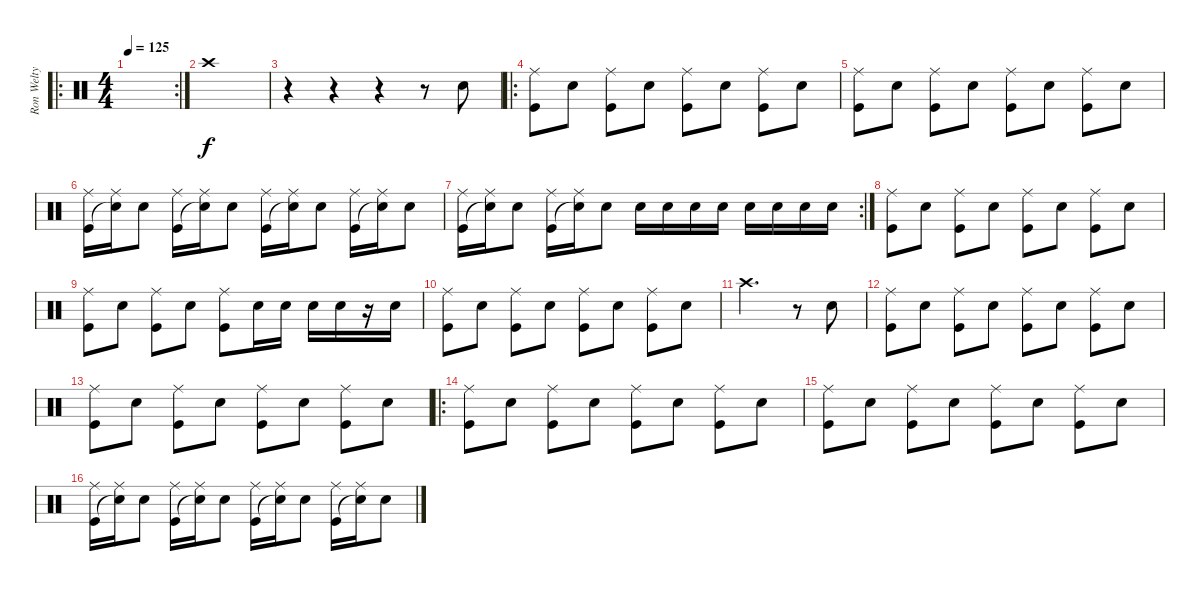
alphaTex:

\track ("Ron Welty" "Ron Welty") {instrument percussion}
\staff {score}
\articulation defaults
\ro
\rc 2
\ts (4 4)
\tempo 125
\clef neutral
\ks c
|
"Crash high (hit)".1 |
r.4 r.4 r.4 r.8 "Snare (hit) 2".8 |
\ro
("Ride (middle)" "Kick (hit)").8 "Snare (hit) 2".8 ("Ride (middle)" "Kick (hit)").8 "Snare (hit) 2".8 ("Ride (middle)" "Kick (hit)").8 "Snare (hit) 2".8 ("Ride (middle)" "Kick (hit)").8 "Snare (hit) 2".8 |
("Ride (middle)" "Kick (hit)").8 "Snare (hit) 2".8 ("Ride (middle)" "Kick (hit)").8 "Snare (hit) 2".8 ("Ride (middle)" "Kick (hit)").8 "Snare (hit) 2".8 ("Ride (middle)" "Kick (hit)").8 "Snare (hit) 2".8 |
("Ride (middle)" "Kick (hit)").16 ("Ride (middle)" "Snare (hit)"{t}).16 "Snare (hit) 2".8 ("Ride (middle)" "Kick (hit)").16 ("Ride (middle)" "Snare (hit)"{t}).16 "Snare (hit) 2".8 ("Ride (middle)" "Kick (hit)").16 ("Ride (middle)" "Snare (hit)"{t}).16 "Snare (hit) 2".8 ("Ride (middle)" "Kick (hit)").16 ("Ride (middle)" "Snare (hit)"{t}).16 "Snare (hit) 2".8 |
\rc 2
("Ride (middle)" "Kick (hit)").16 ("Ride (middle)" "Snare (hit)"{t}).16 "Snare (hit) 2".8 ("Ride (middle)" "Kick (hit)").16 ("Ride (middle)" "Snare (hit)"{t}).16 "Snare (hit) 2".8 "Snare (hit) 2".16 "Snare (hit) 2".16 "Snare (hit) 2".16 "Snare (hit) 2".16 "Snare (hit) 2".16 "Snare (hit) 2".16 "Snare (hit) 2".16 "Snare (hit) 2".16 |
("Ride (middle)" "Kick (hit)").8 "Snare (hit) 2".8 ("Ride (middle)" "Kick (hit)").8 "Snare (hit) 2".8 ("Ride (middle)" "Kick (hit)").8 "Snare (hit) 2".8 ("Ride (middle)" "Kick (hit)").8 "Snare (hit) 2".8 |
("Ride (middle)" "Kick (hit)").8 "Snare (hit) 2".8 ("Ride (middle)" "Kick (hit)").8 "Snare (hit) 2".8 ("Ride (middle)" "Kick (hit)").8 "Snare (hit) 2".16 "Snare (hit) 2".16 "Snare (hit) 2".16 "Snare (hit) 2".16 r.16 "Snare (hit) 2".16 |
("Ride (middle)" "Kick (hit)").8 "Snare (hit) 2".8 ("Ride (middle)" "Kick (hit)").8 "Snare (hit) 2".8 ("Ride (middle)" "Kick (hit)").8 "Snare (hit) 2".8 ("Ride (middle)" "Kick (hit)").8 "Snare (hit) 2".8 |
"Crash high (hit)".2{d} r.8 "Snare (hit) 2".8 |
("Ride (middle)" "Kick (hit)").8 "Snare (hit) 2".8 ("Ride (middle)" "Kick (hit)").8 "Snare (hit) 2".8 ("Ride (middle)" "Kick (hit)").8 "Snare (hit) 2".8 ("Ride (middle)" "Kick (hit)").8 "Snare (hit) 2".8 |
("Ride (middle)" "Kick (hit)").8 "Snare (hit) 2".8 ("Ride (middle)" "Kick (hit)").8 "Snare (hit) 2".8 ("Ride (middle)" "Kick (hit)").8 "Snare (hit) 2".8 ("Ride (middle)" "Kick (hit)").8 "Snare (hit) 2".8 |
\ro
("Ride (middle)" "Kick (hit)").8 "Snare (hit) 2".8 ("Ride (middle)" "Kick (hit)").8 "Snare (hit) 2".8 ("Ride (middle)" "Kick (hit)").8 "Snare (hit) 2".8 ("Ride (middle)" "Kick (hit)").8 "Snare (hit) 2".8 |
("Ride (middle)" "Kick (hit)").8 "Snare (hit) 2".8 ("Ride (middle)" "Kick (hit)").8 "Snare (hit) 2".8 ("Ride (middle)" "Kick (hit)").8 "Snare (hit) 2".8 ("Ride (middle)" "Kick (hit)").8 "Snare (hit) 2".8 |
("Ride (middle)" "Kick (hit)").16 ("Ride (middle)" "Snare (hit)"{t}).16 "Snare (hit) 2".8 ("Ride (middle)" "Kick (hit)").16 ("Ride (middle)" "Snare (hit)"{t}).16 "Snare (hit) 2".8 ("Ride (middle)" "Kick (hit)").16 ("Ride (middle)" "Snare (hit)"{t}).16 "Snare (hit) 2".8 ("Ride (middle)" "Kick (hit)").16 ("Ride (middle)" "Snare (hit)"{t}).16 "Snare (hit) 2".8
